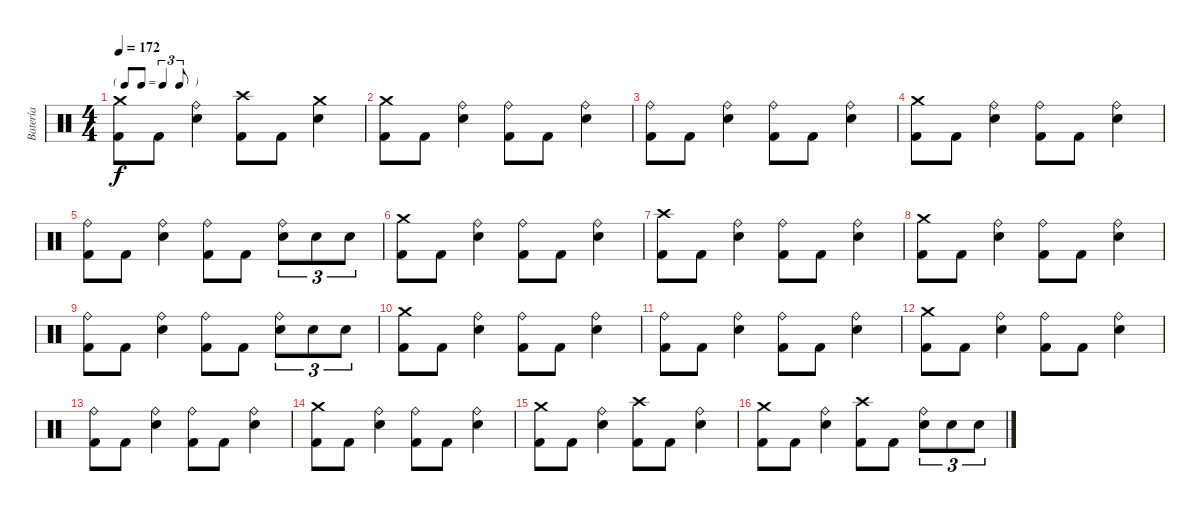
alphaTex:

\track ("Batería" "Batería") {instrument percussion}
\staff {score}
\articulation defaults
\ts (4 4)
\tf triplet8th
\tempo 172
\clef neutral
\ks c
("Kick (hit) 2" "Crash medium (hit)").8{dy f} "Kick (hit) 2".8 ("Electric Snare (hit)" "Ride (bell)").4 ("Kick (hit) 2" "Crash high (hit)").8 "Kick (hit) 2".8 ("Electric Snare (hit)" "Crash medium (hit)").4 |
("Kick (hit) 2" "Crash medium (hit)").8 "Kick (hit) 2".8 ("Electric Snare (hit)" "Ride (bell)").4 ("Kick (hit) 2" "Ride (bell)").8 "Kick (hit) 2".8 ("Electric Snare (hit)" "Ride (bell)").4 |
("Kick (hit) 2" "Ride (bell)").8 "Kick (hit) 2".8 ("Electric Snare (hit)" "Ride (bell)").4 ("Kick (hit) 2" "Ride (bell)").8 "Kick (hit) 2".8 ("Electric Snare (hit)" "Ride (bell)").4 |
("Kick (hit) 2" "Crash medium (hit)").8 "Kick (hit) 2".8 ("Electric Snare (hit)" "Ride (bell)").4 ("Kick (hit) 2" "Ride (bell)").8 "Kick (hit) 2".8 ("Electric Snare (hit)" "Ride (bell)").4 |
("Kick (hit) 2" "Ride (bell)").8 "Kick (hit) 2".8 ("Electric Snare (hit)" "Ride (bell)").4 ("Kick (hit) 2" "Ride (bell)").8 "Kick (hit) 2".8 ("Electric Snare (hit)" "Ride (bell)").8{tu (3 2)} "Electric Snare (hit)".8{tu (3 2)} "Electric Snare (hit)".8{tu (3 2)} |
("Kick (hit) 2" "Crash medium (hit)").8 "Kick (hit) 2".8 ("Electric Snare (hit)" "Ride (bell)").4 ("Kick (hit) 2" "Ride (bell)").8 "Kick (hit) 2".8 ("Electric Snare (hit)" "Ride (bell)").4 |
("Kick (hit) 2" "Crash high (hit)").8 "Kick (hit) 2".8 ("Electric Snare (hit)" "Ride (bell)").4 ("Kick (hit) 2" "Ride (bell)").8 "Kick (hit) 2".8 ("Electric Snare (hit)" "Ride (bell)").4 |
("Kick (hit) 2" "Crash medium (hit)").8 "Kick (hit) 2".8 ("Electric Snare (hit)" "Ride (bell)").4 ("Kick (hit) 2" "Ride (bell)").8 "Kick (hit) 2".8 ("Electric Snare (hit)" "Ride (bell)").4 |
("Kick (hit) 2" "Ride (bell)").8 "Kick (hit) 2".8 ("Electric Snare (hit)" "Ride (bell)").4 ("Kick (hit) 2" "Ride (bell)").8 "Kick (hit) 2".8 ("Electric Snare (hit)" "Ride (bell)").8{tu (3 2)} "Electric Snare (hit)".8{tu (3 2)} "Electric Snare (hit)".8{tu (3 2)} |
("Kick (hit) 2" "Crash medium (hit)").8 "Kick (hit) 2".8 ("Electric Snare (hit)" "Ride (bell)").4 ("Kick (hit) 2" "Ride (bell)").8 "Kick (hit) 2".8 ("Electric Snare (hit)" "Ride (bell)").4 |
("Kick (hit) 2" "Ride (bell)").8 "Kick (hit) 2".8 ("Electric Snare (hit)" "Ride (bell)").4 ("Kick (hit) 2" "Ride (bell)").8 "Kick (hit) 2".8 ("Electric Snare (hit)" "Ride (bell)").4 |
("Kick (hit) 2" "Crash medium (hit)").8 "Kick (hit) 2".8 ("Electric Snare (hit)" "Ride (bell)").4 ("Kick (hit) 2" "Ride (bell)").8 "Kick (hit) 2".8 ("Electric Snare (hit)" "Ride (bell)").4 |
("Kick (hit) 2" "Ride (bell)").8 "Kick (hit) 2".8 ("Electric Snare (hit)" "Ride (bell)").4 ("Kick (hit) 2" "Ride (bell)").8 "Kick (hit) 2".8 ("Electric Snare (hit)" "Ride (bell)").4 |
("Kick (hit) 2" "Crash medium (hit)").8 "Kick (hit) 2".8 ("Electric Snare (hit)" "Ride (bell)").4 ("Kick (hit) 2" "Ride (bell)").8 "Kick (hit) 2".8 ("Electric Snare (hit)" "Ride (bell)").4 |
("Kick (hit) 2" "Crash medium (hit)").8 "Kick (hit) 2".8 ("Electric Snare (hit)" "Ride (bell)").4 ("Kick (hit) 2" "Crash high (hit)").8 "Kick (hit) 2".8 ("Electric Snare (hit)" "Ride (bell)").4 |
("Kick (hit) 2" "Crash medium (hit)").8 "Kick (hit) 2".8 ("Electric Snare (hit)" "Ride (bell)").4 ("Kick (hit) 2" "Crash high (hit)").8 "Kick (hit) 2".8 ("Electric Snare (hit)" "Ride (bell)").8{tu (3 2)} "Electric Snare (hit)".8{tu (3 2)} "Electric Snare (hit)".8{tu (3 2)}
